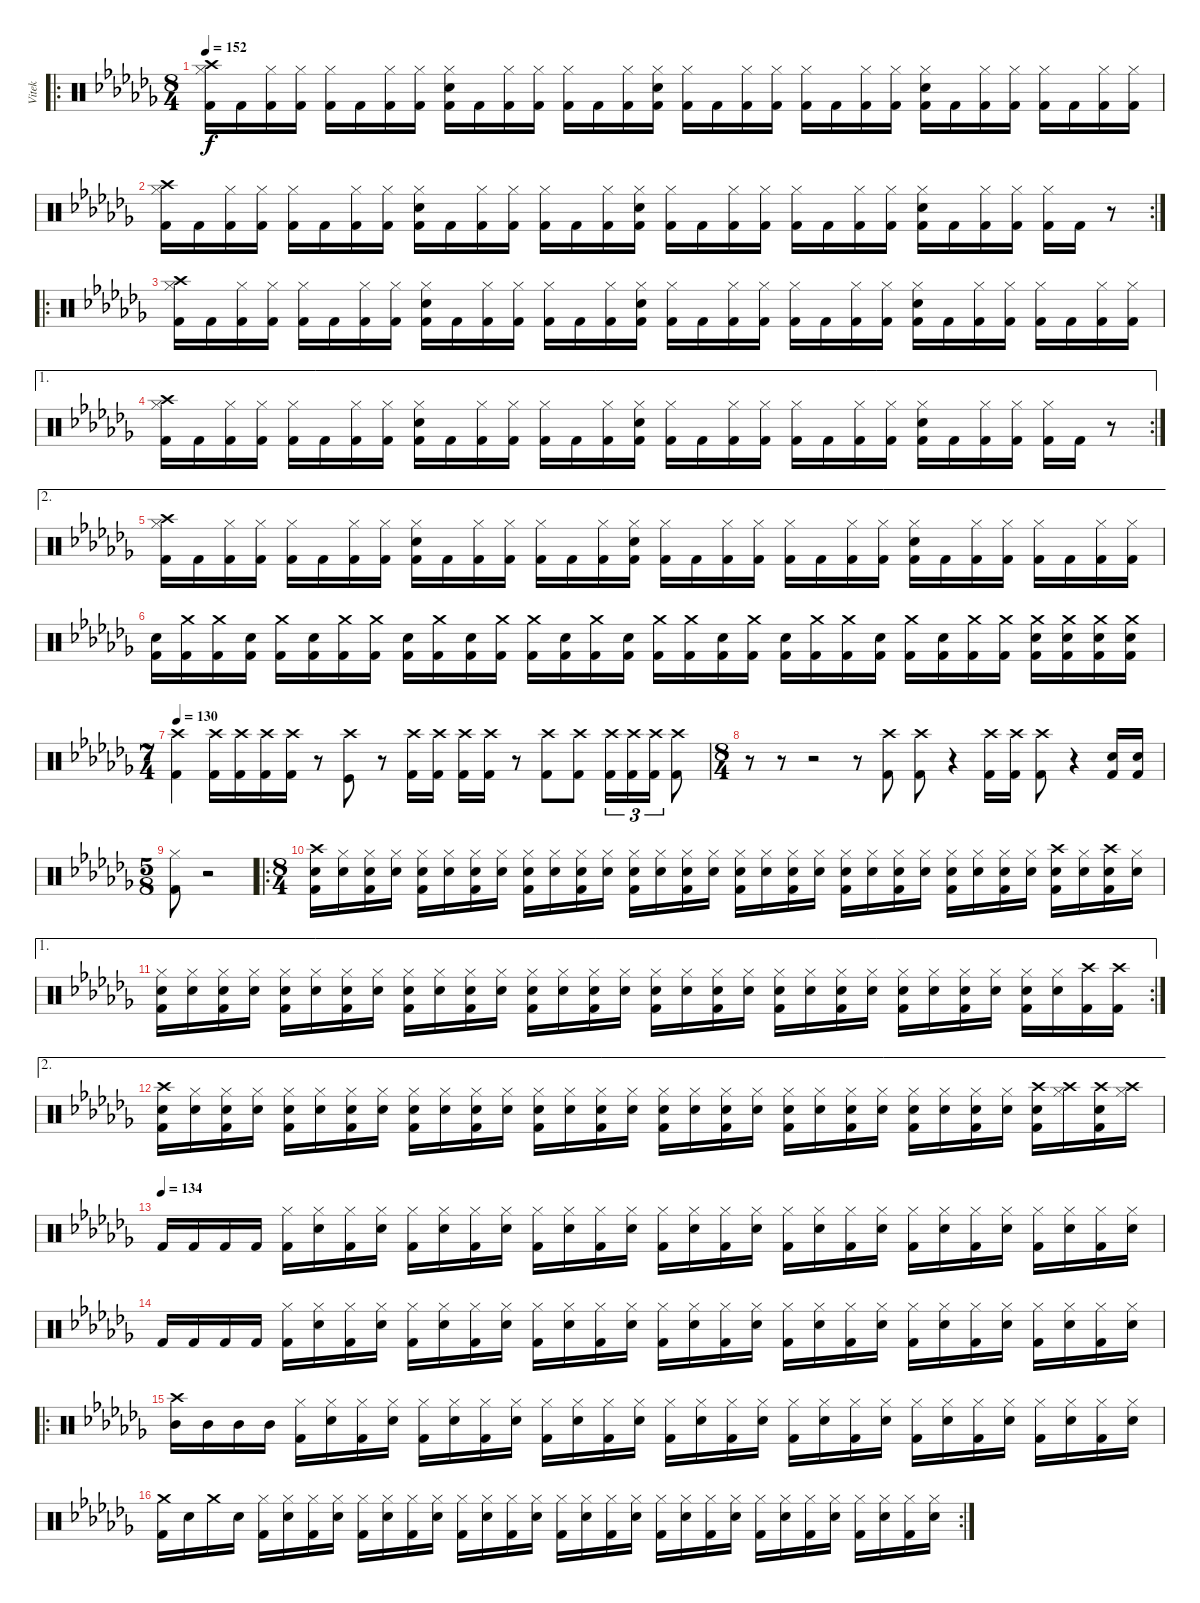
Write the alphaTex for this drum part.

\track ("Vitek" "Vitek") {instrument percussion}
\staff
\articulation defaults
\ro
\ts (8 4)
\tempo 152
\clef neutral
\ks cb
("Hi-Hat (closed)" "Crash high (hit)" "Kick (hit) 2").16{dy f} "Kick (hit) 2".16 ("Hi-Hat (closed)" "Kick (hit) 2").16 ("Hi-Hat (closed)" "Kick (hit) 2").16 ("Hi-Hat (closed)" "Kick (hit) 2").16 "Kick (hit) 2".16 ("Hi-Hat (closed)" "Kick (hit) 2").16 ("Hi-Hat (closed)" "Kick (hit) 2").16 ("Hi-Hat (closed)" "Electric Snare (hit)" "Kick (hit) 2").16 "Kick (hit) 2".16 ("Hi-Hat (closed)" "Kick (hit) 2").16 ("Hi-Hat (closed)" "Kick (hit) 2").16 ("Hi-Hat (closed)" "Kick (hit) 2").16 "Kick (hit) 2".16 ("Hi-Hat (closed)" "Kick (hit) 2").16 ("Hi-Hat (closed)" "Electric Snare (hit)" "Kick (hit) 2").16 ("Hi-Hat (closed)" "Kick (hit) 2").16 "Kick (hit) 2".16 ("Hi-Hat (closed)" "Kick (hit) 2").16 ("Hi-Hat (closed)" "Kick (hit) 2").16 ("Hi-Hat (closed)" "Kick (hit) 2").16 "Kick (hit) 2".16 ("Hi-Hat (closed)" "Kick (hit) 2").16 ("Hi-Hat (closed)" "Kick (hit) 2").16 ("Hi-Hat (closed)" "Electric Snare (hit)" "Kick (hit) 2").16 "Kick (hit) 2".16 ("Hi-Hat (closed)" "Kick (hit) 2").16 ("Hi-Hat (closed)" "Kick (hit) 2").16 ("Hi-Hat (closed)" "Kick (hit) 2").16 "Kick (hit) 2".16 ("Hi-Hat (closed)" "Kick (hit) 2").16 ("Hi-Hat (closed)" "Kick (hit) 2").16 |
\rc 2
("Hi-Hat (closed)" "Crash high (hit)" "Kick (hit) 2").16 "Kick (hit) 2".16 ("Hi-Hat (closed)" "Kick (hit) 2").16 ("Hi-Hat (closed)" "Kick (hit) 2").16 ("Hi-Hat (closed)" "Kick (hit) 2").16 "Kick (hit) 2".16 ("Hi-Hat (closed)" "Kick (hit) 2").16 ("Hi-Hat (closed)" "Kick (hit) 2").16 ("Hi-Hat (closed)" "Electric Snare (hit)" "Kick (hit) 2").16 "Kick (hit) 2".16 ("Hi-Hat (closed)" "Kick (hit) 2").16 ("Hi-Hat (closed)" "Kick (hit) 2").16 ("Hi-Hat (closed)" "Kick (hit) 2").16 "Kick (hit) 2".16 ("Hi-Hat (closed)" "Kick (hit) 2").16 ("Hi-Hat (closed)" "Electric Snare (hit)" "Kick (hit) 2").16 ("Hi-Hat (closed)" "Kick (hit) 2").16 "Kick (hit) 2".16 ("Hi-Hat (closed)" "Kick (hit) 2").16 ("Hi-Hat (closed)" "Kick (hit) 2").16 ("Hi-Hat (closed)" "Kick (hit) 2").16 "Kick (hit) 2".16 ("Hi-Hat (closed)" "Kick (hit) 2").16 ("Hi-Hat (closed)" "Kick (hit) 2").16 ("Hi-Hat (closed)" "Electric Snare (hit)" "Kick (hit) 2").16 "Kick (hit) 2".16 ("Hi-Hat (closed)" "Kick (hit) 2").16 ("Hi-Hat (closed)" "Kick (hit) 2").16 ("Hi-Hat (closed)" "Kick (hit) 2").16 "Kick (hit) 2".16 r.8 |
\ro
("Hi-Hat (closed)" "Crash high (hit)" "Kick (hit) 2").16 "Kick (hit) 2".16 ("Hi-Hat (closed)" "Kick (hit) 2").16 ("Hi-Hat (closed)" "Kick (hit) 2").16 ("Hi-Hat (closed)" "Kick (hit) 2").16 "Kick (hit) 2".16 ("Hi-Hat (closed)" "Kick (hit) 2").16 ("Hi-Hat (closed)" "Kick (hit) 2").16 ("Hi-Hat (closed)" "Electric Snare (hit)" "Kick (hit) 2").16 "Kick (hit) 2".16 ("Hi-Hat (closed)" "Kick (hit) 2").16 ("Hi-Hat (closed)" "Kick (hit) 2").16 ("Hi-Hat (closed)" "Kick (hit) 2").16 "Kick (hit) 2".16 ("Hi-Hat (closed)" "Kick (hit) 2").16 ("Hi-Hat (closed)" "Electric Snare (hit)" "Kick (hit) 2").16 ("Hi-Hat (closed)" "Kick (hit) 2").16 "Kick (hit) 2".16 ("Hi-Hat (closed)" "Kick (hit) 2").16 ("Hi-Hat (closed)" "Kick (hit) 2").16 ("Hi-Hat (closed)" "Kick (hit) 2").16 "Kick (hit) 2".16 ("Hi-Hat (closed)" "Kick (hit) 2").16 ("Hi-Hat (closed)" "Kick (hit) 2").16 ("Hi-Hat (closed)" "Electric Snare (hit)" "Kick (hit) 2").16 "Kick (hit) 2".16 ("Hi-Hat (closed)" "Kick (hit) 2").16 ("Hi-Hat (closed)" "Kick (hit) 2").16 ("Hi-Hat (closed)" "Kick (hit) 2").16 "Kick (hit) 2".16 ("Hi-Hat (closed)" "Kick (hit) 2").16 ("Hi-Hat (closed)" "Kick (hit) 2").16 |
\ae 1
\rc 2
("Hi-Hat (closed)" "Crash high (hit)" "Kick (hit) 2").16 "Kick (hit) 2".16 ("Hi-Hat (closed)" "Kick (hit) 2").16 ("Hi-Hat (closed)" "Kick (hit) 2").16 ("Hi-Hat (closed)" "Kick (hit) 2").16 "Kick (hit) 2".16 ("Hi-Hat (closed)" "Kick (hit) 2").16 ("Hi-Hat (closed)" "Kick (hit) 2").16 ("Hi-Hat (closed)" "Electric Snare (hit)" "Kick (hit) 2").16 "Kick (hit) 2".16 ("Hi-Hat (closed)" "Kick (hit) 2").16 ("Hi-Hat (closed)" "Kick (hit) 2").16 ("Hi-Hat (closed)" "Kick (hit) 2").16 "Kick (hit) 2".16 ("Hi-Hat (closed)" "Kick (hit) 2").16 ("Hi-Hat (closed)" "Electric Snare (hit)" "Kick (hit) 2").16 ("Hi-Hat (closed)" "Kick (hit) 2").16 "Kick (hit) 2".16 ("Hi-Hat (closed)" "Kick (hit) 2").16 ("Hi-Hat (closed)" "Kick (hit) 2").16 ("Hi-Hat (closed)" "Kick (hit) 2").16 "Kick (hit) 2".16 ("Hi-Hat (closed)" "Kick (hit) 2").16 ("Hi-Hat (closed)" "Kick (hit) 2").16 ("Hi-Hat (closed)" "Electric Snare (hit)" "Kick (hit) 2").16 "Kick (hit) 2".16 ("Hi-Hat (closed)" "Kick (hit) 2").16 ("Hi-Hat (closed)" "Kick (hit) 2").16 ("Hi-Hat (closed)" "Kick (hit) 2").16 "Kick (hit) 2".16 r.8 |
\ae 2
("Hi-Hat (closed)" "Crash high (hit)" "Kick (hit) 2").16 "Kick (hit) 2".16 ("Hi-Hat (closed)" "Kick (hit) 2").16 ("Hi-Hat (closed)" "Kick (hit) 2").16 ("Hi-Hat (closed)" "Kick (hit) 2").16 "Kick (hit) 2".16 ("Hi-Hat (closed)" "Kick (hit) 2").16 ("Hi-Hat (closed)" "Kick (hit) 2").16 ("Hi-Hat (closed)" "Electric Snare (hit)" "Kick (hit) 2").16 "Kick (hit) 2".16 ("Hi-Hat (closed)" "Kick (hit) 2").16 ("Hi-Hat (closed)" "Kick (hit) 2").16 ("Hi-Hat (closed)" "Kick (hit) 2").16 "Kick (hit) 2".16 ("Hi-Hat (closed)" "Kick (hit) 2").16 ("Hi-Hat (closed)" "Electric Snare (hit)" "Kick (hit) 2").16 ("Hi-Hat (closed)" "Kick (hit) 2").16 "Kick (hit) 2".16 ("Hi-Hat (closed)" "Kick (hit) 2").16 ("Hi-Hat (closed)" "Kick (hit) 2").16 ("Hi-Hat (closed)" "Kick (hit) 2").16 "Kick (hit) 2".16 ("Hi-Hat (closed)" "Kick (hit) 2").16 ("Hi-Hat (closed)" "Kick (hit) 2").16 ("Hi-Hat (closed)" "Electric Snare (hit)" "Kick (hit) 2").16 "Kick (hit) 2".16 ("Hi-Hat (closed)" "Kick (hit) 2").16 ("Hi-Hat (closed)" "Kick (hit) 2").16 ("Hi-Hat (closed)" "Kick (hit) 2").16 "Kick (hit) 2".16 ("Hi-Hat (closed)" "Kick (hit) 2").16 ("Hi-Hat (closed)" "Kick (hit) 2").16 |
("Snare (hit) 2" "Kick (hit) 2").16 ("Crash medium (hit)" "Kick (hit) 2").16 ("Crash medium (hit)" "Kick (hit) 2").16 ("Snare (hit) 2" "Kick (hit) 2").16 ("Crash medium (hit)" "Kick (hit) 2").16 ("Snare (hit) 2" "Kick (hit) 2").16 ("Crash medium (hit)" "Kick (hit) 2").16 ("Crash medium (hit)" "Kick (hit) 2").16 ("Snare (hit) 2" "Kick (hit) 2").16 ("Crash medium (hit)" "Kick (hit) 2").16 ("Snare (hit) 2" "Kick (hit) 2").16 ("Crash medium (hit)" "Kick (hit) 2").16 ("Crash medium (hit)" "Kick (hit) 2").16 ("Snare (hit) 2" "Kick (hit) 2").16 ("Crash medium (hit)" "Kick (hit) 2").16 ("Snare (hit) 2" "Kick (hit) 2").16 ("Crash medium (hit)" "Kick (hit) 2").16 ("Crash medium (hit)" "Kick (hit) 2").16 ("Snare (hit) 2" "Kick (hit) 2").16 ("Crash medium (hit)" "Kick (hit) 2").16 ("Snare (hit) 2" "Kick (hit) 2").16 ("Crash medium (hit)" "Kick (hit) 2").16 ("Crash medium (hit)" "Kick (hit) 2").16 ("Snare (hit) 2" "Kick (hit) 2").16 ("Crash medium (hit)" "Kick (hit) 2").16 ("Snare (hit) 2" "Kick (hit) 2").16 ("Crash medium (hit)" "Kick (hit) 2").16 ("Crash medium (hit)" "Kick (hit) 2").16 ("Crash medium (hit)" "Snare (hit) 2" "Kick (hit) 2").16 ("Crash medium (hit)" "Snare (hit) 2" "Kick (hit) 2").16 ("Crash medium (hit)" "Snare (hit) 2" "Kick (hit) 2").16 ("Crash medium (hit)" "Snare (hit) 2" "Kick (hit) 2").16 |
\ts (7 4)
\tempo 130
("Crash high (hit)" "Kick (hit) 2").4 ("Crash high (hit)" "Kick (hit) 2").16 ("Crash high (hit)" "Kick (hit) 2").16 ("Crash high (hit)" "Kick (hit) 2").16 ("Crash high (hit)" "Kick (hit) 2").16 r.8 ("Crash high (hit)" "Kick (hit)").8 r.8 ("Crash high (hit)" "Kick (hit) 2").16 ("Crash high (hit)" "Kick (hit) 2").16 ("Crash high (hit)" "Kick (hit) 2").16 ("Crash high (hit)" "Kick (hit) 2").16 r.8 ("Crash high (hit)" "Kick (hit) 2").8 ("Crash high (hit)" "Kick (hit) 2").8 ("Crash high (hit)" "Kick (hit) 2").16{tu (3 2)} ("Crash high (hit)" "Kick (hit) 2").16{tu (3 2)} ("Crash high (hit)" "Kick (hit) 2").16{tu (3 2)} ("Crash high (hit)" "Kick (hit) 2").8 |
\ts (8 4)
r.8 r.8 r.2 r.8 ("Crash high (hit)" "Kick (hit) 2").8 ("Crash high (hit)" "Kick (hit) 2").8 r.4 ("Crash high (hit)" "Kick (hit) 2").16 ("Crash high (hit)" "Kick (hit) 2").16 ("Crash high (hit)" "Kick (hit) 2").8 r.4 ("Electric Snare (hit)" "Kick (hit) 2").16 ("Electric Snare (hit)" "Kick (hit) 2").16 |
\ts (5 8)
("Hi-Hat (closed)" "Kick (hit) 2").8 r.2 |
\ro
\ts (8 4)
("Crash high (hit)" "Electric Snare (hit)" "Kick (hit) 2").16 ("Hi-Hat (closed)" "Electric Snare (hit)").16 ("Hi-Hat (closed)" "Electric Snare (hit)" "Kick (hit) 2").16 ("Hi-Hat (closed)" "Electric Snare (hit)").16 ("Hi-Hat (closed)" "Electric Snare (hit)" "Kick (hit) 2").16 ("Hi-Hat (closed)" "Electric Snare (hit)").16 ("Hi-Hat (closed)" "Electric Snare (hit)" "Kick (hit) 2").16 ("Hi-Hat (closed)" "Electric Snare (hit)").16 ("Hi-Hat (closed)" "Electric Snare (hit)" "Kick (hit) 2").16 ("Hi-Hat (closed)" "Electric Snare (hit)").16 ("Hi-Hat (closed)" "Electric Snare (hit)" "Kick (hit) 2").16 ("Hi-Hat (closed)" "Electric Snare (hit)").16 ("Hi-Hat (closed)" "Electric Snare (hit)" "Kick (hit) 2").16 ("Hi-Hat (closed)" "Electric Snare (hit)").16 ("Hi-Hat (closed)" "Electric Snare (hit)" "Kick (hit) 2").16 ("Hi-Hat (closed)" "Electric Snare (hit)").16 ("Hi-Hat (closed)" "Electric Snare (hit)" "Kick (hit) 2").16 ("Hi-Hat (closed)" "Electric Snare (hit)").16 ("Hi-Hat (closed)" "Electric Snare (hit)" "Kick (hit) 2").16 ("Hi-Hat (closed)" "Electric Snare (hit)").16 ("Hi-Hat (closed)" "Electric Snare (hit)" "Kick (hit) 2").16 ("Hi-Hat (closed)" "Electric Snare (hit)").16 ("Hi-Hat (closed)" "Electric Snare (hit)" "Kick (hit) 2").16 ("Hi-Hat (closed)" "Electric Snare (hit)").16 ("Hi-Hat (closed)" "Electric Snare (hit)" "Kick (hit) 2").16 ("Hi-Hat (closed)" "Electric Snare (hit)").16 ("Hi-Hat (closed)" "Electric Snare (hit)" "Kick (hit) 2").16 ("Hi-Hat (closed)" "Electric Snare (hit)").16 ("Crash high (hit)" "Electric Snare (hit)" "Kick (hit) 2").16 ("Hi-Hat (closed)" "Electric Snare (hit)").16 ("Crash high (hit)" "Electric Snare (hit)" "Kick (hit) 2").16 ("Hi-Hat (closed)" "Electric Snare (hit)").16 |
\ae 1
\rc 2
("Hi-Hat (closed)" "Electric Snare (hit)" "Kick (hit) 2").16 ("Hi-Hat (closed)" "Electric Snare (hit)").16 ("Hi-Hat (closed)" "Electric Snare (hit)" "Kick (hit) 2").16 ("Hi-Hat (closed)" "Electric Snare (hit)").16 ("Hi-Hat (closed)" "Electric Snare (hit)" "Kick (hit) 2").16 ("Hi-Hat (closed)" "Electric Snare (hit)").16 ("Hi-Hat (closed)" "Electric Snare (hit)" "Kick (hit) 2").16 ("Hi-Hat (closed)" "Electric Snare (hit)").16 ("Hi-Hat (closed)" "Electric Snare (hit)" "Kick (hit) 2").16 ("Hi-Hat (closed)" "Electric Snare (hit)").16 ("Hi-Hat (closed)" "Electric Snare (hit)" "Kick (hit) 2").16 ("Hi-Hat (closed)" "Electric Snare (hit)").16 ("Hi-Hat (closed)" "Electric Snare (hit)" "Kick (hit) 2").16 ("Hi-Hat (closed)" "Electric Snare (hit)").16 ("Hi-Hat (closed)" "Electric Snare (hit)" "Kick (hit) 2").16 ("Hi-Hat (closed)" "Electric Snare (hit)").16 ("Hi-Hat (closed)" "Electric Snare (hit)" "Kick (hit) 2").16 ("Hi-Hat (closed)" "Electric Snare (hit)").16 ("Hi-Hat (closed)" "Electric Snare (hit)" "Kick (hit) 2").16 ("Hi-Hat (closed)" "Electric Snare (hit)").16 ("Hi-Hat (closed)" "Electric Snare (hit)" "Kick (hit) 2").16 ("Hi-Hat (closed)" "Electric Snare (hit)").16 ("Hi-Hat (closed)" "Electric Snare (hit)" "Kick (hit) 2").16 ("Hi-Hat (closed)" "Electric Snare (hit)").16 ("Hi-Hat (closed)" "Electric Snare (hit)" "Kick (hit) 2").16 ("Hi-Hat (closed)" "Electric Snare (hit)").16 ("Hi-Hat (closed)" "Electric Snare (hit)" "Kick (hit) 2").16 ("Hi-Hat (closed)" "Electric Snare (hit)").16 ("Hi-Hat (closed)" "Electric Snare (hit)" "Kick (hit) 2").16 ("Hi-Hat (closed)" "Electric Snare (hit)").16 ("Crash high (hit)" "Kick (hit) 2").16 ("Crash high (hit)" "Kick (hit) 2").16 |
\ae 2
("Crash high (hit)" "Electric Snare (hit)" "Kick (hit) 2").16 ("Hi-Hat (closed)" "Electric Snare (hit)").16 ("Hi-Hat (closed)" "Electric Snare (hit)" "Kick (hit) 2").16 ("Hi-Hat (closed)" "Electric Snare (hit)").16 ("Hi-Hat (closed)" "Electric Snare (hit)" "Kick (hit) 2").16 ("Hi-Hat (closed)" "Electric Snare (hit)").16 ("Hi-Hat (closed)" "Electric Snare (hit)" "Kick (hit) 2").16 ("Hi-Hat (closed)" "Electric Snare (hit)").16 ("Hi-Hat (closed)" "Electric Snare (hit)" "Kick (hit) 2").16 ("Hi-Hat (closed)" "Electric Snare (hit)").16 ("Hi-Hat (closed)" "Electric Snare (hit)" "Kick (hit) 2").16 ("Hi-Hat (closed)" "Electric Snare (hit)").16 ("Hi-Hat (closed)" "Electric Snare (hit)" "Kick (hit) 2").16 ("Hi-Hat (closed)" "Electric Snare (hit)").16 ("Hi-Hat (closed)" "Electric Snare (hit)" "Kick (hit) 2").16 ("Hi-Hat (closed)" "Electric Snare (hit)").16 ("Hi-Hat (closed)" "Electric Snare (hit)" "Kick (hit) 2").16 ("Hi-Hat (closed)" "Electric Snare (hit)").16 ("Hi-Hat (closed)" "Electric Snare (hit)" "Kick (hit) 2").16 ("Hi-Hat (closed)" "Electric Snare (hit)").16 ("Hi-Hat (closed)" "Electric Snare (hit)" "Kick (hit) 2").16 ("Hi-Hat (closed)" "Electric Snare (hit)").16 ("Hi-Hat (closed)" "Electric Snare (hit)" "Kick (hit) 2").16 ("Hi-Hat (closed)" "Electric Snare (hit)").16 ("Hi-Hat (closed)" "Electric Snare (hit)" "Kick (hit) 2").16 ("Hi-Hat (closed)" "Electric Snare (hit)").16 ("Hi-Hat (closed)" "Electric Snare (hit)" "Kick (hit) 2").16 ("Hi-Hat (closed)" "Electric Snare (hit)").16 ("Crash high (hit)" "Electric Snare (hit)" "Kick (hit) 2").16 ("Hi-Hat (closed)" "Crash high (hit)").16 ("Crash high (hit)" "Electric Snare (hit)" "Kick (hit) 2").16 ("Hi-Hat (closed)" "Crash high (hit)").16 |
\tempo (134)
"Kick (hit) 2".16 "Kick (hit) 2".16 "Kick (hit) 2".16 "Kick (hit) 2".16 ("Hi-Hat (closed)" "Kick (hit) 2").16 ("Hi-Hat (closed)" "Electric Snare (hit)").16 ("Hi-Hat (closed)" "Kick (hit) 2").16 ("Hi-Hat (closed)" "Electric Snare (hit)").16 ("Hi-Hat (closed)" "Kick (hit) 2").16 ("Hi-Hat (closed)" "Electric Snare (hit)").16 ("Hi-Hat (closed)" "Kick (hit) 2").16 ("Hi-Hat (closed)" "Electric Snare (hit)").16 ("Hi-Hat (closed)" "Kick (hit) 2").16 ("Hi-Hat (closed)" "Electric Snare (hit)").16 ("Hi-Hat (closed)" "Kick (hit) 2").16 ("Hi-Hat (closed)" "Electric Snare (hit)").16 ("Hi-Hat (closed)" "Kick (hit) 2").16 ("Hi-Hat (closed)" "Electric Snare (hit)").16 ("Hi-Hat (closed)" "Kick (hit) 2").16 ("Hi-Hat (closed)" "Electric Snare (hit)").16 ("Hi-Hat (closed)" "Kick (hit) 2").16 ("Hi-Hat (closed)" "Electric Snare (hit)").16 ("Hi-Hat (closed)" "Kick (hit) 2").16 ("Hi-Hat (closed)" "Electric Snare (hit)").16 ("Hi-Hat (closed)" "Kick (hit) 2").16 ("Hi-Hat (closed)" "Electric Snare (hit)").16 ("Hi-Hat (closed)" "Kick (hit) 2").16 ("Hi-Hat (closed)" "Electric Snare (hit)").16 ("Hi-Hat (closed)" "Kick (hit) 2").16 ("Hi-Hat (closed)" "Electric Snare (hit)").16 ("Hi-Hat (closed)" "Kick (hit) 2").16 ("Hi-Hat (closed)" "Electric Snare (hit)").16 |
"Kick (hit) 2".16 "Kick (hit) 2".16 "Kick (hit) 2".16 "Kick (hit) 2".16 ("Hi-Hat (closed)" "Kick (hit) 2").16 ("Hi-Hat (closed)" "Electric Snare (hit)").16 ("Hi-Hat (closed)" "Kick (hit) 2").16 ("Hi-Hat (closed)" "Electric Snare (hit)").16 ("Hi-Hat (closed)" "Kick (hit) 2").16 ("Hi-Hat (closed)" "Electric Snare (hit)").16 ("Hi-Hat (closed)" "Kick (hit) 2").16 ("Hi-Hat (closed)" "Electric Snare (hit)").16 ("Hi-Hat (closed)" "Kick (hit) 2").16 ("Hi-Hat (closed)" "Electric Snare (hit)").16 ("Hi-Hat (closed)" "Kick (hit) 2").16 ("Hi-Hat (closed)" "Electric Snare (hit)").16 ("Hi-Hat (closed)" "Kick (hit) 2").16 ("Hi-Hat (closed)" "Electric Snare (hit)").16 ("Hi-Hat (closed)" "Kick (hit) 2").16 ("Hi-Hat (closed)" "Electric Snare (hit)").16 ("Hi-Hat (closed)" "Kick (hit) 2").16 ("Hi-Hat (closed)" "Electric Snare (hit)").16 ("Hi-Hat (closed)" "Kick (hit) 2").16 ("Hi-Hat (closed)" "Electric Snare (hit)").16 ("Hi-Hat (closed)" "Kick (hit) 2").16 ("Hi-Hat (closed)" "Electric Snare (hit)").16 ("Hi-Hat (closed)" "Kick (hit) 2").16 ("Hi-Hat (closed)" "Electric Snare (hit)").16 ("Hi-Hat (closed)" "Kick (hit) 2").16 ("Hi-Hat (closed)" "Electric Snare (hit)").16 ("Hi-Hat (closed)" "Kick (hit) 2").16 ("Hi-Hat (closed)" "Electric Snare (hit)").16 |
\ro
("Mid Tom (hit)" "Crash high (hit)").16 "Mid Tom (hit)".16 "Mid Tom (hit)".16 "Mid Tom (hit)".16 ("Hi-Hat (closed)" "Kick (hit) 2").16 ("Hi-Hat (closed)" "Electric Snare (hit)").16 ("Hi-Hat (closed)" "Kick (hit) 2").16 ("Hi-Hat (closed)" "Electric Snare (hit)").16 ("Hi-Hat (closed)" "Kick (hit) 2").16 ("Hi-Hat (closed)" "Electric Snare (hit)").16 ("Hi-Hat (closed)" "Kick (hit) 2").16 ("Hi-Hat (closed)" "Electric Snare (hit)").16 ("Hi-Hat (closed)" "Kick (hit) 2").16 ("Hi-Hat (closed)" "Electric Snare (hit)").16 ("Hi-Hat (closed)" "Kick (hit) 2").16 ("Hi-Hat (closed)" "Electric Snare (hit)").16 ("Hi-Hat (closed)" "Kick (hit) 2").16 ("Hi-Hat (closed)" "Electric Snare (hit)").16 ("Hi-Hat (closed)" "Kick (hit) 2").16 ("Hi-Hat (closed)" "Electric Snare (hit)").16 ("Hi-Hat (closed)" "Kick (hit) 2").16 ("Hi-Hat (closed)" "Electric Snare (hit)").16 ("Hi-Hat (closed)" "Kick (hit) 2").16 ("Hi-Hat (closed)" "Electric Snare (hit)").16 ("Hi-Hat (closed)" "Kick (hit) 2").16 ("Hi-Hat (closed)" "Electric Snare (hit)").16 ("Hi-Hat (closed)" "Kick (hit) 2").16 ("Hi-Hat (closed)" "Electric Snare (hit)").16 ("Hi-Hat (closed)" "Kick (hit) 2").16 ("Hi-Hat (closed)" "Electric Snare (hit)").16 ("Hi-Hat (closed)" "Kick (hit) 2").16 ("Hi-Hat (closed)" "Electric Snare (hit)").16 |
\rc 2
("Crash medium (hit)" "Kick (hit) 2").16 "Electric Snare (hit)".16 "Crash medium (hit)".16 "Electric Snare (hit)".16 ("Hi-Hat (closed)" "Kick (hit) 2").16 ("Hi-Hat (closed)" "Electric Snare (hit)").16 ("Hi-Hat (closed)" "Kick (hit) 2").16 ("Hi-Hat (closed)" "Electric Snare (hit)").16 ("Hi-Hat (closed)" "Kick (hit) 2").16 ("Hi-Hat (closed)" "Electric Snare (hit)").16 ("Hi-Hat (closed)" "Kick (hit) 2").16 ("Hi-Hat (closed)" "Electric Snare (hit)").16 ("Hi-Hat (closed)" "Kick (hit) 2").16 ("Hi-Hat (closed)" "Electric Snare (hit)").16 ("Hi-Hat (closed)" "Kick (hit) 2").16 ("Hi-Hat (closed)" "Electric Snare (hit)").16 ("Hi-Hat (closed)" "Kick (hit) 2").16 ("Hi-Hat (closed)" "Electric Snare (hit)").16 ("Hi-Hat (closed)" "Kick (hit) 2").16 ("Hi-Hat (closed)" "Electric Snare (hit)").16 ("Hi-Hat (closed)" "Kick (hit) 2").16 ("Hi-Hat (closed)" "Electric Snare (hit)").16 ("Hi-Hat (closed)" "Kick (hit) 2").16 ("Hi-Hat (closed)" "Electric Snare (hit)").16 ("Hi-Hat (closed)" "Kick (hit) 2").16 ("Hi-Hat (closed)" "Electric Snare (hit)").16 ("Hi-Hat (closed)" "Kick (hit) 2").16 ("Hi-Hat (closed)" "Electric Snare (hit)").16 ("Hi-Hat (closed)" "Kick (hit) 2").16 ("Hi-Hat (closed)" "Electric Snare (hit)").16 ("Hi-Hat (closed)" "Kick (hit) 2").16 ("Hi-Hat (closed)" "Electric Snare (hit)").16
